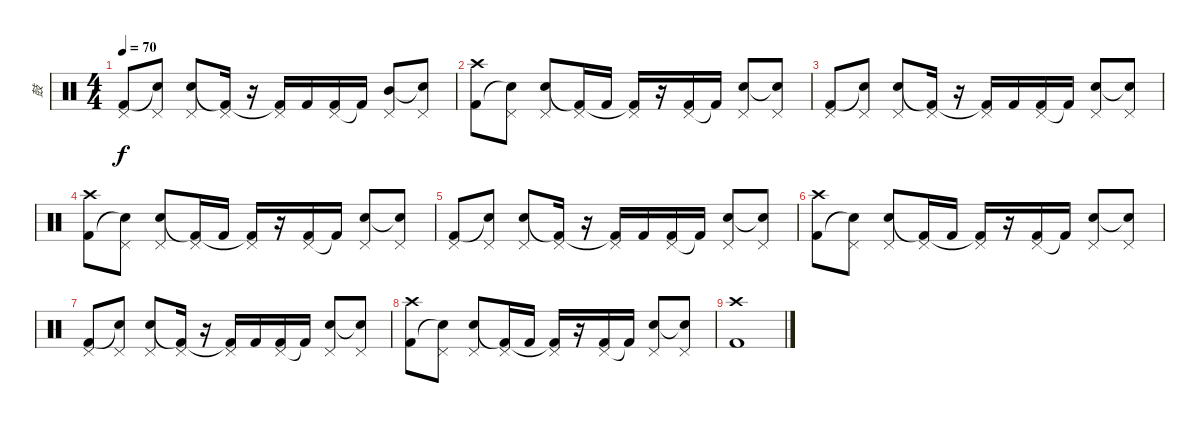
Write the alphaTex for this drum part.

\track ("鼓" "鼓") {instrument percussion}
\staff {score}
\articulation defaults
\ts (4 4)
\tempo 70
\clef neutral
\ks c
("Pedal Hi-Hat (hit)" "Kick (hit) 2").8{dy f} ("Pedal Hi-Hat (hit)" "Snare (hit)"{t}).8 ("Pedal Hi-Hat (hit)" "Electric Snare (hit)").8 ("Pedal Hi-Hat (hit)" "Kick (hit) 2"{t}).16 r.16 ("Pedal Hi-Hat (hit)" "Kick (hit) 2"{t}).16 "Kick (hit) 2".16 ("Pedal Hi-Hat (hit)" "Kick (hit) 2").16 "Kick (hit) 2"{t}.16 ("Pedal Hi-Hat (hit)" "Mid Tom (hit)").8 ("Pedal Hi-Hat (hit)" "Snare (hit)"{t}).8 |
("Crash high (hit)" "Kick (hit) 2").8 ("Pedal Hi-Hat (hit)" "Snare (hit)"{t}).8 ("Pedal Hi-Hat (hit)" "Electric Snare (hit)").8 ("Pedal Hi-Hat (hit)" "Kick (hit) 2"{t}).16 "Kick (hit) 2".16 ("Pedal Hi-Hat (hit)" "Kick (hit) 2"{t}).16 r.16 ("Pedal Hi-Hat (hit)" "Kick (hit) 2").16 "Kick (hit) 2"{t}.16 ("Pedal Hi-Hat (hit)" "Electric Snare (hit)").8 ("Pedal Hi-Hat (hit)" "Snare (hit)"{t}).8 |
("Pedal Hi-Hat (hit)" "Kick (hit) 2").8 ("Pedal Hi-Hat (hit)" "Snare (hit)"{t}).8 ("Pedal Hi-Hat (hit)" "Electric Snare (hit)").8 ("Pedal Hi-Hat (hit)" "Kick (hit) 2"{t}).16 r.16 ("Pedal Hi-Hat (hit)" "Kick (hit) 2"{t}).16 "Kick (hit) 2".16 ("Pedal Hi-Hat (hit)" "Kick (hit) 2").16 "Kick (hit) 2"{t}.16 ("Pedal Hi-Hat (hit)" "Electric Snare (hit)").8 ("Pedal Hi-Hat (hit)" "Snare (hit)"{t}).8 |
("Crash high (hit)" "Kick (hit) 2").8 ("Pedal Hi-Hat (hit)" "Snare (hit)"{t}).8 ("Pedal Hi-Hat (hit)" "Electric Snare (hit)").8 ("Pedal Hi-Hat (hit)" "Kick (hit) 2"{t}).16 "Kick (hit) 2".16 ("Pedal Hi-Hat (hit)" "Kick (hit) 2"{t}).16 r.16 ("Pedal Hi-Hat (hit)" "Kick (hit) 2").16 "Kick (hit) 2"{t}.16 ("Pedal Hi-Hat (hit)" "Electric Snare (hit)").8 ("Pedal Hi-Hat (hit)" "Snare (hit)"{t}).8 |
("Pedal Hi-Hat (hit)" "Kick (hit) 2").8 ("Pedal Hi-Hat (hit)" "Snare (hit)"{t}).8 ("Pedal Hi-Hat (hit)" "Electric Snare (hit)").8 ("Pedal Hi-Hat (hit)" "Kick (hit) 2"{t}).16 r.16 ("Pedal Hi-Hat (hit)" "Kick (hit) 2"{t}).16 "Kick (hit) 2".16 ("Pedal Hi-Hat (hit)" "Kick (hit) 2").16 "Kick (hit) 2"{t}.16 ("Pedal Hi-Hat (hit)" "Electric Snare (hit)").8 ("Pedal Hi-Hat (hit)" "Snare (hit)"{t}).8 |
("Crash high (hit)" "Kick (hit) 2").8 ("Pedal Hi-Hat (hit)" "Snare (hit)"{t}).8 ("Pedal Hi-Hat (hit)" "Electric Snare (hit)").8 ("Pedal Hi-Hat (hit)" "Kick (hit) 2"{t}).16 "Kick (hit) 2".16 ("Pedal Hi-Hat (hit)" "Kick (hit) 2"{t}).16 r.16 ("Pedal Hi-Hat (hit)" "Kick (hit) 2").16 "Kick (hit) 2"{t}.16 ("Pedal Hi-Hat (hit)" "Electric Snare (hit)").8 ("Pedal Hi-Hat (hit)" "Snare (hit)"{t}).8 |
("Pedal Hi-Hat (hit)" "Kick (hit) 2").8 ("Pedal Hi-Hat (hit)" "Snare (hit)"{t}).8 ("Pedal Hi-Hat (hit)" "Electric Snare (hit)").8 ("Pedal Hi-Hat (hit)" "Kick (hit) 2"{t}).16 r.16 ("Pedal Hi-Hat (hit)" "Kick (hit) 2"{t}).16 "Kick (hit) 2".16 ("Pedal Hi-Hat (hit)" "Kick (hit) 2").16 "Kick (hit) 2"{t}.16 ("Pedal Hi-Hat (hit)" "Electric Snare (hit)").8 ("Pedal Hi-Hat (hit)" "Snare (hit)"{t}).8 |
("Crash high (hit)" "Kick (hit) 2").8 ("Pedal Hi-Hat (hit)" "Snare (hit)"{t}).8 ("Pedal Hi-Hat (hit)" "Electric Snare (hit)").8 ("Pedal Hi-Hat (hit)" "Kick (hit) 2"{t}).16 "Kick (hit) 2".16 ("Pedal Hi-Hat (hit)" "Kick (hit) 2"{t}).16 r.16 ("Pedal Hi-Hat (hit)" "Kick (hit) 2").16 "Kick (hit) 2"{t}.16 ("Pedal Hi-Hat (hit)" "Electric Snare (hit)").8 ("Pedal Hi-Hat (hit)" "Snare (hit)"{t}).8 |
("Crash high (hit)" "Kick (hit) 2").1
